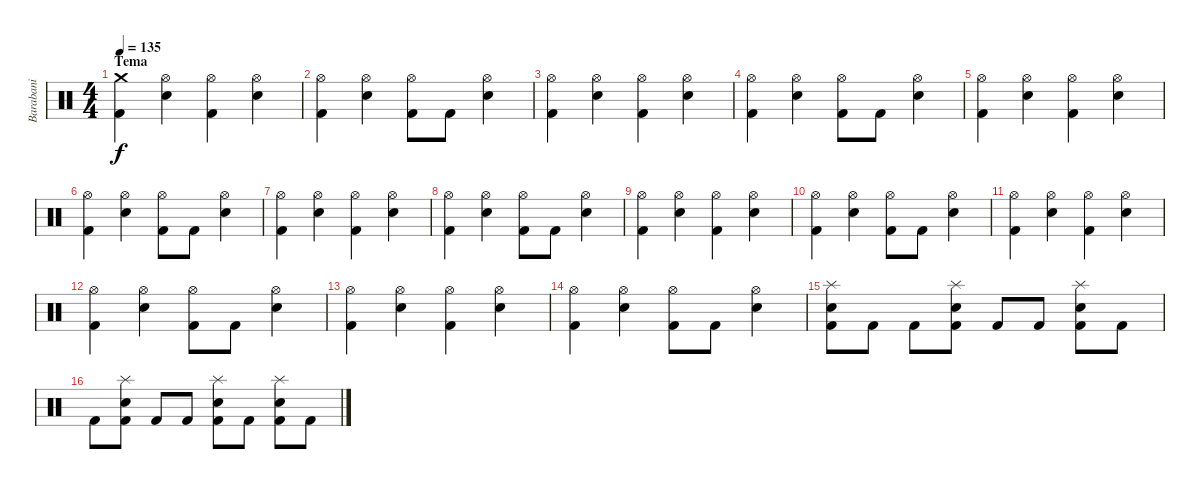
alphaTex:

\track ("Barabani" "Barabani") {instrument percussion}
\staff {score}
\articulation defaults
\ts (4 4)
\section ("" "Tema")
\tempo 135
\clef neutral
\ks c
("Crash medium (hit)" "Kick (hit) 2").4{dy f} ("Hi-Hat (open)" "Snare (hit) 2").4 ("Hi-Hat (open)" "Kick (hit) 2").4 ("Hi-Hat (open)" "Snare (hit) 2").4 |
("Hi-Hat (open)" "Kick (hit) 2").4 ("Hi-Hat (open)" "Snare (hit) 2").4 ("Hi-Hat (open)" "Kick (hit) 2").8 "Kick (hit) 2".8 ("Hi-Hat (open)" "Snare (hit) 2").4 |
("Hi-Hat (open)" "Kick (hit) 2").4 ("Hi-Hat (open)" "Snare (hit) 2").4 ("Hi-Hat (open)" "Kick (hit) 2").4 ("Hi-Hat (open)" "Snare (hit) 2").4 |
("Hi-Hat (open)" "Kick (hit) 2").4 ("Hi-Hat (open)" "Snare (hit) 2").4 ("Hi-Hat (open)" "Kick (hit) 2").8 "Kick (hit) 2".8 ("Hi-Hat (open)" "Snare (hit) 2").4 |
("Hi-Hat (open)" "Kick (hit) 2").4 ("Hi-Hat (open)" "Snare (hit) 2").4 ("Hi-Hat (open)" "Kick (hit) 2").4 ("Hi-Hat (open)" "Snare (hit) 2").4 |
("Hi-Hat (open)" "Kick (hit) 2").4 ("Hi-Hat (open)" "Snare (hit) 2").4 ("Hi-Hat (open)" "Kick (hit) 2").8 "Kick (hit) 2".8 ("Hi-Hat (open)" "Snare (hit) 2").4 |
("Hi-Hat (open)" "Kick (hit) 2").4 ("Hi-Hat (open)" "Snare (hit) 2").4 ("Hi-Hat (open)" "Kick (hit) 2").4 ("Hi-Hat (open)" "Snare (hit) 2").4 |
("Hi-Hat (open)" "Kick (hit) 2").4 ("Hi-Hat (open)" "Snare (hit) 2").4 ("Hi-Hat (open)" "Kick (hit) 2").8 "Kick (hit) 2".8 ("Hi-Hat (open)" "Snare (hit) 2").4 |
("Hi-Hat (open)" "Kick (hit) 2").4 ("Hi-Hat (open)" "Snare (hit) 2").4 ("Hi-Hat (open)" "Kick (hit) 2").4 ("Hi-Hat (open)" "Snare (hit) 2").4 |
("Hi-Hat (open)" "Kick (hit) 2").4 ("Hi-Hat (open)" "Snare (hit) 2").4 ("Hi-Hat (open)" "Kick (hit) 2").8 "Kick (hit) 2".8 ("Hi-Hat (open)" "Snare (hit) 2").4 |
("Hi-Hat (open)" "Kick (hit) 2").4 ("Hi-Hat (open)" "Snare (hit) 2").4 ("Hi-Hat (open)" "Kick (hit) 2").4 ("Hi-Hat (open)" "Snare (hit) 2").4 |
("Hi-Hat (open)" "Kick (hit) 2").4 ("Hi-Hat (open)" "Snare (hit) 2").4 ("Hi-Hat (open)" "Kick (hit) 2").8 "Kick (hit) 2".8 ("Hi-Hat (open)" "Snare (hit) 2").4 |
("Hi-Hat (open)" "Kick (hit) 2").4 ("Hi-Hat (open)" "Snare (hit) 2").4 ("Hi-Hat (open)" "Kick (hit) 2").4 ("Hi-Hat (open)" "Snare (hit) 2").4 |
("Hi-Hat (open)" "Kick (hit) 2").4 ("Hi-Hat (open)" "Snare (hit) 2").4 ("Hi-Hat (open)" "Kick (hit) 2").8 "Kick (hit) 2".8 ("Hi-Hat (open)" "Snare (hit) 2").4 |
("Splash (hit)" "Snare (hit) 2" "Kick (hit) 2").8 "Kick (hit) 2".8 "Kick (hit) 2".8 ("Splash (hit)" "Snare (hit) 2" "Kick (hit) 2").8 "Kick (hit) 2".8 "Kick (hit) 2".8 ("Splash (hit)" "Snare (hit) 2" "Kick (hit) 2").8 "Kick (hit) 2".8 |
"Kick (hit) 2".8 ("Splash (hit)" "Snare (hit) 2" "Kick (hit) 2").8 "Kick (hit) 2".8 "Kick (hit) 2".8 ("Splash (hit)" "Snare (hit) 2" "Kick (hit) 2").8 "Kick (hit) 2".8 ("Splash (hit)" "Snare (hit) 2" "Kick (hit) 2").8 "Kick (hit) 2".8
